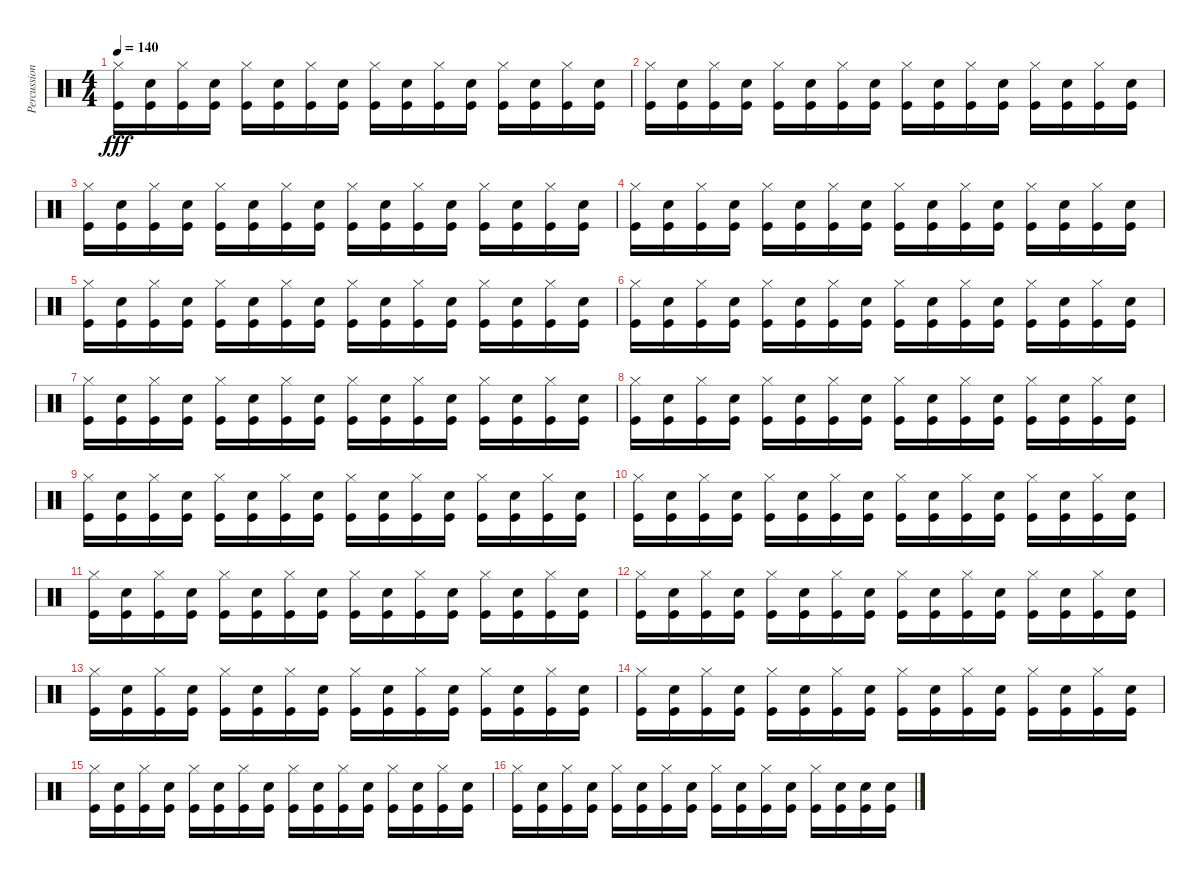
\track ("Percussion" "Percussion") {instrument percussion}
\staff {score}
\articulation defaults
\ts (4 4)
\tempo 140
\clef neutral
\ks c
("Hi-Hat (closed)" "Kick (hit)").16{dy fff} ("Snare (hit) 2" "Kick (hit)").16 ("Hi-Hat (closed)" "Kick (hit)").16 ("Snare (hit) 2" "Kick (hit)").16 ("Hi-Hat (closed)" "Kick (hit)").16 ("Snare (hit) 2" "Kick (hit)").16 ("Hi-Hat (closed)" "Kick (hit)").16 ("Snare (hit) 2" "Kick (hit)").16 ("Hi-Hat (closed)" "Kick (hit)").16 ("Snare (hit) 2" "Kick (hit)").16 ("Hi-Hat (closed)" "Kick (hit)").16 ("Snare (hit) 2" "Kick (hit)").16 ("Hi-Hat (closed)" "Kick (hit)").16 ("Snare (hit) 2" "Kick (hit)").16 ("Hi-Hat (closed)" "Kick (hit)").16 ("Snare (hit) 2" "Kick (hit)").16 |
("Hi-Hat (closed)" "Kick (hit)").16 ("Snare (hit) 2" "Kick (hit)").16 ("Hi-Hat (closed)" "Kick (hit)").16 ("Snare (hit) 2" "Kick (hit)").16 ("Hi-Hat (closed)" "Kick (hit)").16 ("Snare (hit) 2" "Kick (hit)").16 ("Hi-Hat (closed)" "Kick (hit)").16 ("Snare (hit) 2" "Kick (hit)").16 ("Hi-Hat (closed)" "Kick (hit)").16 ("Snare (hit) 2" "Kick (hit)").16 ("Hi-Hat (closed)" "Kick (hit)").16 ("Snare (hit) 2" "Kick (hit)").16 ("Hi-Hat (closed)" "Kick (hit)").16 ("Snare (hit) 2" "Kick (hit)").16 ("Hi-Hat (closed)" "Kick (hit)").16 ("Snare (hit) 2" "Kick (hit)").16 |
("Hi-Hat (closed)" "Kick (hit)").16 ("Snare (hit) 2" "Kick (hit)").16 ("Hi-Hat (closed)" "Kick (hit)").16 ("Snare (hit) 2" "Kick (hit)").16 ("Hi-Hat (closed)" "Kick (hit)").16 ("Snare (hit) 2" "Kick (hit)").16 ("Hi-Hat (closed)" "Kick (hit)").16 ("Snare (hit) 2" "Kick (hit)").16 ("Hi-Hat (closed)" "Kick (hit)").16 ("Snare (hit) 2" "Kick (hit)").16 ("Hi-Hat (closed)" "Kick (hit)").16 ("Snare (hit) 2" "Kick (hit)").16 ("Hi-Hat (closed)" "Kick (hit)").16 ("Snare (hit) 2" "Kick (hit)").16 ("Hi-Hat (closed)" "Kick (hit)").16 ("Snare (hit) 2" "Kick (hit)").16 |
("Hi-Hat (closed)" "Kick (hit)").16 ("Snare (hit) 2" "Kick (hit)").16 ("Hi-Hat (closed)" "Kick (hit)").16 ("Snare (hit) 2" "Kick (hit)").16 ("Hi-Hat (closed)" "Kick (hit)").16 ("Snare (hit) 2" "Kick (hit)").16 ("Hi-Hat (closed)" "Kick (hit)").16 ("Snare (hit) 2" "Kick (hit)").16 ("Hi-Hat (closed)" "Kick (hit)").16 ("Snare (hit) 2" "Kick (hit)").16 ("Hi-Hat (closed)" "Kick (hit)").16 ("Snare (hit) 2" "Kick (hit)").16 ("Hi-Hat (closed)" "Kick (hit)").16 ("Snare (hit) 2" "Kick (hit)").16 ("Hi-Hat (closed)" "Kick (hit)").16 ("Snare (hit) 2" "Kick (hit)").16 |
("Hi-Hat (closed)" "Kick (hit)").16 ("Snare (hit) 2" "Kick (hit)").16 ("Hi-Hat (closed)" "Kick (hit)").16 ("Snare (hit) 2" "Kick (hit)").16 ("Hi-Hat (closed)" "Kick (hit)").16 ("Snare (hit) 2" "Kick (hit)").16 ("Hi-Hat (closed)" "Kick (hit)").16 ("Snare (hit) 2" "Kick (hit)").16 ("Hi-Hat (closed)" "Kick (hit)").16 ("Snare (hit) 2" "Kick (hit)").16 ("Hi-Hat (closed)" "Kick (hit)").16 ("Snare (hit) 2" "Kick (hit)").16 ("Hi-Hat (closed)" "Kick (hit)").16 ("Snare (hit) 2" "Kick (hit)").16 ("Hi-Hat (closed)" "Kick (hit)").16 ("Snare (hit) 2" "Kick (hit)").16 |
("Hi-Hat (closed)" "Kick (hit)").16 ("Snare (hit) 2" "Kick (hit)").16 ("Hi-Hat (closed)" "Kick (hit)").16 ("Snare (hit) 2" "Kick (hit)").16 ("Hi-Hat (closed)" "Kick (hit)").16 ("Snare (hit) 2" "Kick (hit)").16 ("Hi-Hat (closed)" "Kick (hit)").16 ("Snare (hit) 2" "Kick (hit)").16 ("Hi-Hat (closed)" "Kick (hit)").16 ("Snare (hit) 2" "Kick (hit)").16 ("Hi-Hat (closed)" "Kick (hit)").16 ("Snare (hit) 2" "Kick (hit)").16 ("Hi-Hat (closed)" "Kick (hit)").16 ("Snare (hit) 2" "Kick (hit)").16 ("Hi-Hat (closed)" "Kick (hit)").16 ("Snare (hit) 2" "Kick (hit)").16 |
("Hi-Hat (closed)" "Kick (hit)").16 ("Snare (hit) 2" "Kick (hit)").16 ("Hi-Hat (closed)" "Kick (hit)").16 ("Snare (hit) 2" "Kick (hit)").16 ("Hi-Hat (closed)" "Kick (hit)").16 ("Snare (hit) 2" "Kick (hit)").16 ("Hi-Hat (closed)" "Kick (hit)").16 ("Snare (hit) 2" "Kick (hit)").16 ("Hi-Hat (closed)" "Kick (hit)").16 ("Snare (hit) 2" "Kick (hit)").16 ("Hi-Hat (closed)" "Kick (hit)").16 ("Snare (hit) 2" "Kick (hit)").16 ("Hi-Hat (closed)" "Kick (hit)").16 ("Snare (hit) 2" "Kick (hit)").16 ("Hi-Hat (closed)" "Kick (hit)").16 ("Snare (hit) 2" "Kick (hit)").16 |
("Hi-Hat (closed)" "Kick (hit)").16 ("Snare (hit) 2" "Kick (hit)").16 ("Hi-Hat (closed)" "Kick (hit)").16 ("Snare (hit) 2" "Kick (hit)").16 ("Hi-Hat (closed)" "Kick (hit)").16 ("Snare (hit) 2" "Kick (hit)").16 ("Hi-Hat (closed)" "Kick (hit)").16 ("Snare (hit) 2" "Kick (hit)").16 ("Hi-Hat (closed)" "Kick (hit)").16 ("Snare (hit) 2" "Kick (hit)").16 ("Hi-Hat (closed)" "Kick (hit)").16 ("Snare (hit) 2" "Kick (hit)").16 ("Hi-Hat (closed)" "Kick (hit)").16 ("Snare (hit) 2" "Kick (hit)").16 ("Hi-Hat (closed)" "Kick (hit)").16 ("Snare (hit) 2" "Kick (hit)").16 |
("Hi-Hat (closed)" "Kick (hit)").16 ("Snare (hit) 2" "Kick (hit)").16 ("Hi-Hat (closed)" "Kick (hit)").16 ("Snare (hit) 2" "Kick (hit)").16 ("Hi-Hat (closed)" "Kick (hit)").16 ("Snare (hit) 2" "Kick (hit)").16 ("Hi-Hat (closed)" "Kick (hit)").16 ("Snare (hit) 2" "Kick (hit)").16 ("Hi-Hat (closed)" "Kick (hit)").16 ("Snare (hit) 2" "Kick (hit)").16 ("Hi-Hat (closed)" "Kick (hit)").16 ("Snare (hit) 2" "Kick (hit)").16 ("Hi-Hat (closed)" "Kick (hit)").16 ("Snare (hit) 2" "Kick (hit)").16 ("Hi-Hat (closed)" "Kick (hit)").16 ("Snare (hit) 2" "Kick (hit)").16 |
("Hi-Hat (closed)" "Kick (hit)").16 ("Snare (hit) 2" "Kick (hit)").16 ("Hi-Hat (closed)" "Kick (hit)").16 ("Snare (hit) 2" "Kick (hit)").16 ("Hi-Hat (closed)" "Kick (hit)").16 ("Snare (hit) 2" "Kick (hit)").16 ("Hi-Hat (closed)" "Kick (hit)").16 ("Snare (hit) 2" "Kick (hit)").16 ("Hi-Hat (closed)" "Kick (hit)").16 ("Snare (hit) 2" "Kick (hit)").16 ("Hi-Hat (closed)" "Kick (hit)").16 ("Snare (hit) 2" "Kick (hit)").16 ("Hi-Hat (closed)" "Kick (hit)").16 ("Snare (hit) 2" "Kick (hit)").16 ("Hi-Hat (closed)" "Kick (hit)").16 ("Snare (hit) 2" "Kick (hit)").16 |
("Hi-Hat (closed)" "Kick (hit)").16 ("Snare (hit) 2" "Kick (hit)").16 ("Hi-Hat (closed)" "Kick (hit)").16 ("Snare (hit) 2" "Kick (hit)").16 ("Hi-Hat (closed)" "Kick (hit)").16 ("Snare (hit) 2" "Kick (hit)").16 ("Hi-Hat (closed)" "Kick (hit)").16 ("Snare (hit) 2" "Kick (hit)").16 ("Hi-Hat (closed)" "Kick (hit)").16 ("Snare (hit) 2" "Kick (hit)").16 ("Hi-Hat (closed)" "Kick (hit)").16 ("Snare (hit) 2" "Kick (hit)").16 ("Hi-Hat (closed)" "Kick (hit)").16 ("Snare (hit) 2" "Kick (hit)").16 ("Hi-Hat (closed)" "Kick (hit)").16 ("Snare (hit) 2" "Kick (hit)").16 |
("Hi-Hat (closed)" "Kick (hit)").16 ("Snare (hit) 2" "Kick (hit)").16 ("Hi-Hat (closed)" "Kick (hit)").16 ("Snare (hit) 2" "Kick (hit)").16 ("Hi-Hat (closed)" "Kick (hit)").16 ("Snare (hit) 2" "Kick (hit)").16 ("Hi-Hat (closed)" "Kick (hit)").16 ("Snare (hit) 2" "Kick (hit)").16 ("Hi-Hat (closed)" "Kick (hit)").16 ("Snare (hit) 2" "Kick (hit)").16 ("Hi-Hat (closed)" "Kick (hit)").16 ("Snare (hit) 2" "Kick (hit)").16 ("Hi-Hat (closed)" "Kick (hit)").16 ("Snare (hit) 2" "Kick (hit)").16 ("Hi-Hat (closed)" "Kick (hit)").16 ("Snare (hit) 2" "Kick (hit)").16 |
("Hi-Hat (closed)" "Kick (hit)").16 ("Snare (hit) 2" "Kick (hit)").16 ("Hi-Hat (closed)" "Kick (hit)").16 ("Snare (hit) 2" "Kick (hit)").16 ("Hi-Hat (closed)" "Kick (hit)").16 ("Snare (hit) 2" "Kick (hit)").16 ("Hi-Hat (closed)" "Kick (hit)").16 ("Snare (hit) 2" "Kick (hit)").16 ("Hi-Hat (closed)" "Kick (hit)").16 ("Snare (hit) 2" "Kick (hit)").16 ("Hi-Hat (closed)" "Kick (hit)").16 ("Snare (hit) 2" "Kick (hit)").16 ("Hi-Hat (closed)" "Kick (hit)").16 ("Snare (hit) 2" "Kick (hit)").16 ("Hi-Hat (closed)" "Kick (hit)").16 ("Snare (hit) 2" "Kick (hit)").16 |
("Hi-Hat (closed)" "Kick (hit)").16 ("Snare (hit) 2" "Kick (hit)").16 ("Hi-Hat (closed)" "Kick (hit)").16 ("Snare (hit) 2" "Kick (hit)").16 ("Hi-Hat (closed)" "Kick (hit)").16 ("Snare (hit) 2" "Kick (hit)").16 ("Hi-Hat (closed)" "Kick (hit)").16 ("Snare (hit) 2" "Kick (hit)").16 ("Hi-Hat (closed)" "Kick (hit)").16 ("Snare (hit) 2" "Kick (hit)").16 ("Hi-Hat (closed)" "Kick (hit)").16 ("Snare (hit) 2" "Kick (hit)").16 ("Hi-Hat (closed)" "Kick (hit)").16 ("Snare (hit) 2" "Kick (hit)").16 ("Hi-Hat (closed)" "Kick (hit)").16 ("Snare (hit) 2" "Kick (hit)").16 |
("Hi-Hat (closed)" "Kick (hit)").16 ("Snare (hit) 2" "Kick (hit)").16 ("Hi-Hat (closed)" "Kick (hit)").16 ("Snare (hit) 2" "Kick (hit)").16 ("Hi-Hat (closed)" "Kick (hit)").16 ("Snare (hit) 2" "Kick (hit)").16 ("Hi-Hat (closed)" "Kick (hit)").16 ("Snare (hit) 2" "Kick (hit)").16 ("Hi-Hat (closed)" "Kick (hit)").16 ("Snare (hit) 2" "Kick (hit)").16 ("Hi-Hat (closed)" "Kick (hit)").16 ("Snare (hit) 2" "Kick (hit)").16 ("Hi-Hat (closed)" "Kick (hit)").16 ("Snare (hit) 2" "Kick (hit)").16 ("Hi-Hat (closed)" "Kick (hit)").16 ("Snare (hit) 2" "Kick (hit)").16 |
("Hi-Hat (closed)" "Kick (hit)").16 ("Snare (hit) 2" "Kick (hit)").16 ("Hi-Hat (closed)" "Kick (hit)").16 ("Snare (hit) 2" "Kick (hit)").16 ("Hi-Hat (closed)" "Kick (hit)").16 ("Snare (hit) 2" "Kick (hit)").16 ("Hi-Hat (closed)" "Kick (hit)").16 ("Snare (hit) 2" "Kick (hit)").16 ("Hi-Hat (closed)" "Kick (hit)").16 ("Snare (hit) 2" "Kick (hit)").16 ("Hi-Hat (closed)" "Kick (hit)").16 ("Snare (hit) 2" "Kick (hit)").16 ("Hi-Hat (closed)" "Kick (hit)").16 ("Snare (hit) 2" "Kick (hit)").16 ("Snare (hit) 2" "Kick (hit)").16 ("Snare (hit) 2" "Kick (hit)").16
